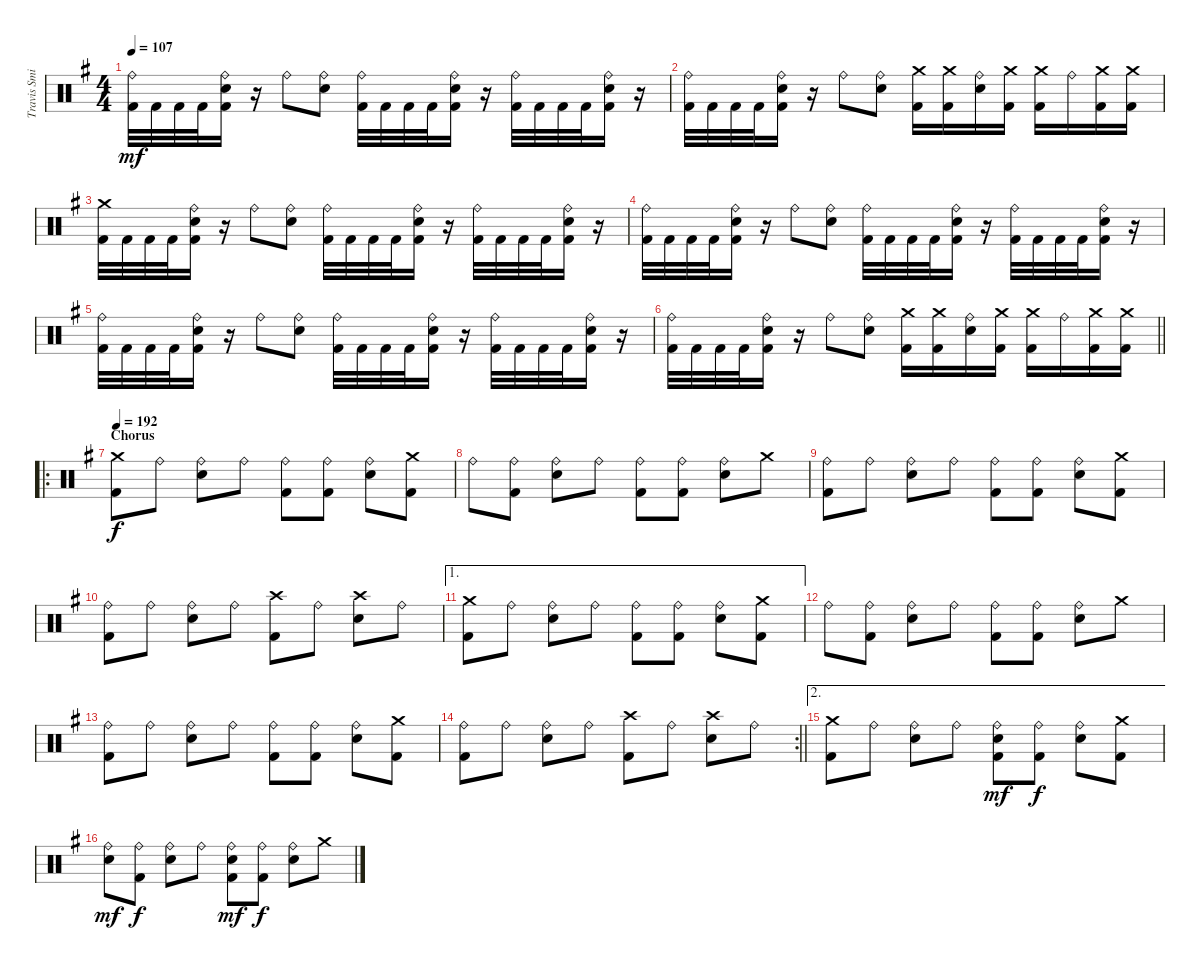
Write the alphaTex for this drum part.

\track ("Travis Smith" "Travis Smi") {instrument percussion}
\staff {score}
\articulation defaults
\ts (4 4)
\tempo 107
\clef neutral
\ks eminor
("Ride (bell)" "Kick (hit) 2").32{dy mf} "Kick (hit) 2".32 "Kick (hit) 2".32 "Kick (hit) 2".32 ("Ride (bell)" "Snare (hit) 2" "Kick (hit) 2").16 r.16 "Ride (bell)".8 ("Ride (bell)" "Snare (hit) 2").8 ("Ride (bell)" "Kick (hit) 2").32 "Kick (hit) 2".32 "Kick (hit) 2".32 "Kick (hit) 2".32 ("Ride (bell)" "Snare (hit) 2" "Kick (hit) 2").16 r.16 ("Ride (bell)" "Kick (hit) 2").32 "Kick (hit) 2".32 "Kick (hit) 2".32 "Kick (hit) 2".32 ("Ride (bell)" "Snare (hit) 2" "Kick (hit) 2").16 r.16 |
("Ride (bell)" "Kick (hit) 2").32 "Kick (hit) 2".32 "Kick (hit) 2".32 "Kick (hit) 2".32 ("Ride (bell)" "Snare (hit) 2" "Kick (hit) 2").16 r.16 "Ride (bell)".8 ("Ride (bell)" "Snare (hit) 2").8 ("Crash medium (hit)" "Kick (hit) 2").16 ("Crash medium (hit)" "Kick (hit) 2").16 ("Ride (bell)" "Snare (hit) 2").16 ("Crash medium (hit)" "Kick (hit) 2").16 ("Crash medium (hit)" "Kick (hit) 2").16 "Ride (bell)".16 ("Crash medium (hit)" "Kick (hit) 2").16 ("Crash medium (hit)" "Kick (hit) 2").16 |
("Crash medium (hit)" "Kick (hit) 2").32 "Kick (hit) 2".32 "Kick (hit) 2".32 "Kick (hit) 2".32 ("Ride (bell)" "Snare (hit) 2" "Kick (hit) 2").16 r.16 "Ride (bell)".8 ("Ride (bell)" "Snare (hit) 2").8 ("Ride (bell)" "Kick (hit) 2").32 "Kick (hit) 2".32 "Kick (hit) 2".32 "Kick (hit) 2".32 ("Ride (bell)" "Snare (hit) 2" "Kick (hit) 2").16 r.16 ("Ride (bell)" "Kick (hit) 2").32 "Kick (hit) 2".32 "Kick (hit) 2".32 "Kick (hit) 2".32 ("Ride (bell)" "Snare (hit) 2" "Kick (hit) 2").16 r.16 |
("Ride (bell)" "Kick (hit) 2").32 "Kick (hit) 2".32 "Kick (hit) 2".32 "Kick (hit) 2".32 ("Ride (bell)" "Snare (hit) 2" "Kick (hit) 2").16 r.16 "Ride (bell)".8 ("Ride (bell)" "Snare (hit) 2").8 ("Ride (bell)" "Kick (hit) 2").32 "Kick (hit) 2".32 "Kick (hit) 2".32 "Kick (hit) 2".32 ("Ride (bell)" "Snare (hit) 2" "Kick (hit) 2").16 r.16 ("Ride (bell)" "Kick (hit) 2").32 "Kick (hit) 2".32 "Kick (hit) 2".32 "Kick (hit) 2".32 ("Ride (bell)" "Snare (hit) 2" "Kick (hit) 2").16 r.16 |
("Ride (bell)" "Kick (hit) 2").32 "Kick (hit) 2".32 "Kick (hit) 2".32 "Kick (hit) 2".32 ("Ride (bell)" "Snare (hit) 2" "Kick (hit) 2").16 r.16 "Ride (bell)".8 ("Ride (bell)" "Snare (hit) 2").8 ("Ride (bell)" "Kick (hit) 2").32 "Kick (hit) 2".32 "Kick (hit) 2".32 "Kick (hit) 2".32 ("Ride (bell)" "Snare (hit) 2" "Kick (hit) 2").16 r.16 ("Ride (bell)" "Kick (hit) 2").32 "Kick (hit) 2".32 "Kick (hit) 2".32 "Kick (hit) 2".32 ("Ride (bell)" "Snare (hit) 2" "Kick (hit) 2").16 r.16 |
\barLineRight lightlight
("Ride (bell)" "Kick (hit) 2").32 "Kick (hit) 2".32 "Kick (hit) 2".32 "Kick (hit) 2".32 ("Ride (bell)" "Snare (hit) 2" "Kick (hit) 2").16 r.16 "Ride (bell)".8 ("Ride (bell)" "Snare (hit) 2").8 ("Crash medium (hit)" "Kick (hit) 2").16 ("Crash medium (hit)" "Kick (hit) 2").16 ("Ride (bell)" "Snare (hit) 2").16 ("Crash medium (hit)" "Kick (hit) 2").16 ("Crash medium (hit)" "Kick (hit) 2").16 "Ride (bell)".16 ("Crash medium (hit)" "Kick (hit) 2").16 ("Crash medium (hit)" "Kick (hit) 2").16 |
\ro
\section ("" "Chorus")
\tempo 192
("Crash medium (hit)" "Kick (hit) 2").8{dy f} "Ride (bell)".8 ("Ride (bell)" "Snare (hit) 2").8 "Ride (bell)".8 ("Ride (bell)" "Kick (hit) 2").8 ("Ride (bell)" "Kick (hit) 2").8 ("Ride (bell)" "Snare (hit) 2").8 ("Crash medium (hit)" "Kick (hit) 2").8 |
"Ride (bell)".8 ("Ride (bell)" "Kick (hit) 2").8 ("Ride (bell)" "Snare (hit) 2").8 "Ride (bell)".8 ("Ride (bell)" "Kick (hit) 2").8 ("Ride (bell)" "Kick (hit) 2").8 ("Ride (bell)" "Snare (hit) 2").8 "Crash medium (hit)".8 |
("Ride (bell)" "Kick (hit) 2").8 "Ride (bell)".8 ("Ride (bell)" "Snare (hit) 2").8 "Ride (bell)".8 ("Ride (bell)" "Kick (hit) 2").8 ("Ride (bell)" "Kick (hit) 2").8 ("Ride (bell)" "Snare (hit) 2").8 ("Crash medium (hit)" "Kick (hit) 2").8 |
("Ride (bell)" "Kick (hit) 2").8 "Ride (bell)".8 ("Ride (bell)" "Snare (hit) 2").8 "Ride (bell)".8 ("Crash high (hit)" "Kick (hit) 2").8 "Ride (bell)".8 ("Crash high (hit)" "Snare (hit) 2").8 "Ride (bell)".8 |
\ae 1
("Crash medium (hit)" "Kick (hit) 2").8 "Ride (bell)".8 ("Ride (bell)" "Snare (hit) 2").8 "Ride (bell)".8 ("Ride (bell)" "Kick (hit) 2").8 ("Ride (bell)" "Kick (hit) 2").8 ("Ride (bell)" "Snare (hit) 2").8 ("Crash medium (hit)" "Kick (hit) 2").8 |
"Ride (bell)".8 ("Ride (bell)" "Kick (hit) 2").8 ("Ride (bell)" "Snare (hit) 2").8 "Ride (bell)".8 ("Ride (bell)" "Kick (hit) 2").8 ("Ride (bell)" "Kick (hit) 2").8 ("Ride (bell)" "Snare (hit) 2").8 "Crash medium (hit)".8 |
("Ride (bell)" "Kick (hit) 2").8 "Ride (bell)".8 ("Ride (bell)" "Snare (hit) 2").8 "Ride (bell)".8 ("Ride (bell)" "Kick (hit) 2").8 ("Ride (bell)" "Kick (hit) 2").8 ("Ride (bell)" "Snare (hit) 2").8 ("Crash medium (hit)" "Kick (hit) 2").8 |
\rc 2
\barLineRight lightlight
("Ride (bell)" "Kick (hit) 2").8 "Ride (bell)".8 ("Ride (bell)" "Snare (hit) 2").8 "Ride (bell)".8 ("Crash high (hit)" "Kick (hit) 2").8 "Ride (bell)".8 ("Crash high (hit)" "Snare (hit) 2").8 "Ride (bell)".8 |
\ae 2
("Crash medium (hit)" "Kick (hit) 2").8 "Ride (bell)".8 ("Ride (bell)" "Snare (hit) 2").8 "Ride (bell)".8 ("Snare (hit) 2" "Ride (bell)" "Kick (hit) 2").8{dy mf} ("Ride (bell)" "Kick (hit) 2").8{dy f} ("Ride (bell)" "Snare (hit) 2").8 ("Crash medium (hit)" "Kick (hit) 2").8 |
("Snare (hit) 2" "Ride (bell)").8{dy mf} ("Ride (bell)" "Kick (hit) 2").8{dy f} ("Ride (bell)" "Snare (hit) 2").8 "Ride (bell)".8 ("Snare (hit) 2" "Ride (bell)" "Kick (hit) 2").8{dy mf} ("Ride (bell)" "Kick (hit) 2").8{dy f} ("Ride (bell)" "Snare (hit) 2").8 "Crash medium (hit)".8
